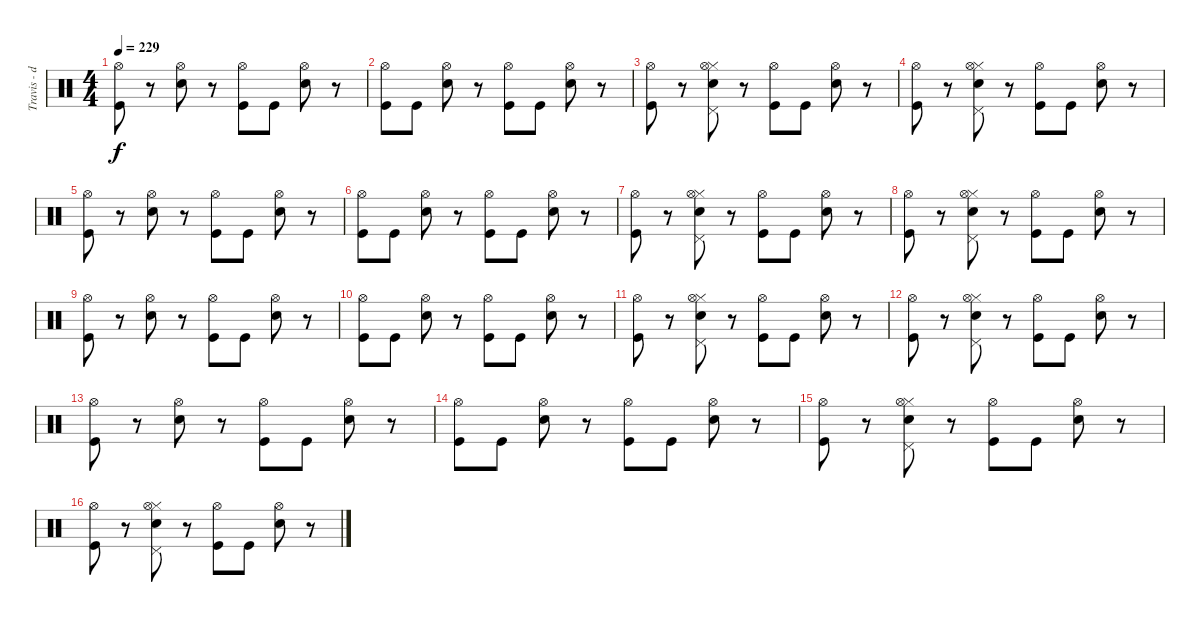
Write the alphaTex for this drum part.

\track ("Travis - drums" "Travis - d") {instrument percussion}
\staff {score}
\articulation defaults
\ts (4 4)
\tempo 229
\clef neutral
\ks c
("Hi-Hat (open)" "Kick (hit)").8{dy f} r.8 ("Hi-Hat (open)" "Electric Snare (hit)").8 r.8 ("Hi-Hat (open)" "Kick (hit)").8 "Kick (hit)".8 ("Hi-Hat (open)" "Electric Snare (hit)").8 r.8 |
("Hi-Hat (open)" "Kick (hit)").8 "Kick (hit)".8 ("Hi-Hat (open)" "Electric Snare (hit)").8 r.8 ("Hi-Hat (open)" "Kick (hit)").8 "Kick (hit)".8 ("Hi-Hat (open)" "Electric Snare (hit)").8 r.8 |
("Hi-Hat (open)" "Kick (hit)").8 r.8 ("Hi-Hat (closed)" "Pedal Hi-Hat (hit)" "Hi-Hat (open)" "Electric Snare (hit)").8 r.8 ("Hi-Hat (open)" "Kick (hit)").8 "Kick (hit)".8 ("Hi-Hat (open)" "Electric Snare (hit)").8 r.8 |
("Hi-Hat (open)" "Kick (hit)").8 r.8 ("Hi-Hat (closed)" "Pedal Hi-Hat (hit)" "Hi-Hat (open)" "Electric Snare (hit)").8 r.8 ("Hi-Hat (open)" "Kick (hit)").8 "Kick (hit)".8 ("Hi-Hat (open)" "Electric Snare (hit)").8 r.8 |
("Hi-Hat (open)" "Kick (hit)").8 r.8 ("Hi-Hat (open)" "Electric Snare (hit)").8 r.8 ("Hi-Hat (open)" "Kick (hit)").8 "Kick (hit)".8 ("Hi-Hat (open)" "Electric Snare (hit)").8 r.8 |
("Hi-Hat (open)" "Kick (hit)").8 "Kick (hit)".8 ("Hi-Hat (open)" "Electric Snare (hit)").8 r.8 ("Hi-Hat (open)" "Kick (hit)").8 "Kick (hit)".8 ("Hi-Hat (open)" "Electric Snare (hit)").8 r.8 |
("Hi-Hat (open)" "Kick (hit)").8 r.8 ("Hi-Hat (closed)" "Pedal Hi-Hat (hit)" "Hi-Hat (open)" "Electric Snare (hit)").8 r.8 ("Hi-Hat (open)" "Kick (hit)").8 "Kick (hit)".8 ("Hi-Hat (open)" "Electric Snare (hit)").8 r.8 |
("Hi-Hat (open)" "Kick (hit)").8 r.8 ("Hi-Hat (closed)" "Pedal Hi-Hat (hit)" "Hi-Hat (open)" "Electric Snare (hit)").8 r.8 ("Hi-Hat (open)" "Kick (hit)").8 "Kick (hit)".8 ("Hi-Hat (open)" "Electric Snare (hit)").8 r.8 |
("Hi-Hat (open)" "Kick (hit)").8 r.8 ("Hi-Hat (open)" "Electric Snare (hit)").8 r.8 ("Hi-Hat (open)" "Kick (hit)").8 "Kick (hit)".8 ("Hi-Hat (open)" "Electric Snare (hit)").8 r.8 |
("Hi-Hat (open)" "Kick (hit)").8 "Kick (hit)".8 ("Hi-Hat (open)" "Electric Snare (hit)").8 r.8 ("Hi-Hat (open)" "Kick (hit)").8 "Kick (hit)".8 ("Hi-Hat (open)" "Electric Snare (hit)").8 r.8 |
("Hi-Hat (open)" "Kick (hit)").8 r.8 ("Hi-Hat (closed)" "Pedal Hi-Hat (hit)" "Hi-Hat (open)" "Electric Snare (hit)").8 r.8 ("Hi-Hat (open)" "Kick (hit)").8 "Kick (hit)".8 ("Hi-Hat (open)" "Electric Snare (hit)").8 r.8 |
("Hi-Hat (open)" "Kick (hit)").8 r.8 ("Hi-Hat (closed)" "Pedal Hi-Hat (hit)" "Hi-Hat (open)" "Electric Snare (hit)").8 r.8 ("Hi-Hat (open)" "Kick (hit)").8 "Kick (hit)".8 ("Hi-Hat (open)" "Electric Snare (hit)").8 r.8 |
("Hi-Hat (open)" "Kick (hit)").8 r.8 ("Hi-Hat (open)" "Electric Snare (hit)").8 r.8 ("Hi-Hat (open)" "Kick (hit)").8 "Kick (hit)".8 ("Hi-Hat (open)" "Electric Snare (hit)").8 r.8 |
("Hi-Hat (open)" "Kick (hit)").8 "Kick (hit)".8 ("Hi-Hat (open)" "Electric Snare (hit)").8 r.8 ("Hi-Hat (open)" "Kick (hit)").8 "Kick (hit)".8 ("Hi-Hat (open)" "Electric Snare (hit)").8 r.8 |
("Hi-Hat (open)" "Kick (hit)").8 r.8 ("Hi-Hat (closed)" "Pedal Hi-Hat (hit)" "Hi-Hat (open)" "Electric Snare (hit)").8 r.8 ("Hi-Hat (open)" "Kick (hit)").8 "Kick (hit)".8 ("Hi-Hat (open)" "Electric Snare (hit)").8 r.8 |
("Hi-Hat (open)" "Kick (hit)").8 r.8 ("Hi-Hat (closed)" "Pedal Hi-Hat (hit)" "Hi-Hat (open)" "Electric Snare (hit)").8 r.8 ("Hi-Hat (open)" "Kick (hit)").8 "Kick (hit)".8 ("Hi-Hat (open)" "Electric Snare (hit)").8 r.8
